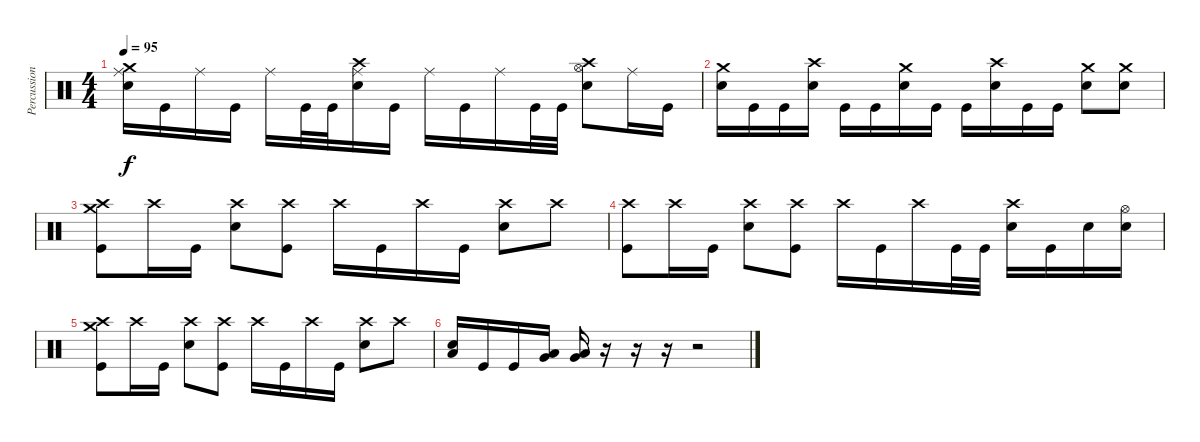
\track ("Percussion" "Percussion") {instrument percussion}
\staff {score}
\articulation defaults
\ts (4 4)
\tempo 95
\clef neutral
\ks c
("Crash medium (hit)" "Ride (middle)" "Snare (hit) 2").16{dy f} "Kick (hit)".16 "Ride (middle)".16 "Kick (hit)".16 "Ride (middle)".16 "Kick (hit)".32 "Kick (hit)".32 ("Crash high (hit)" "Ride (middle)" "Snare (hit) 2").16 "Kick (hit)".16 "Ride (middle)".16 "Kick (hit)".16 "Ride (middle)".16 "Kick (hit)".32 "Kick (hit)".32 ("Crash high (hit)" "Hi-Hat (open)" "Snare (hit) 2").8 "Ride (middle)".16 "Kick (hit)".16 |
("Crash medium (hit)" "Snare (hit) 2").16 "Kick (hit)".16 "Kick (hit)".16 ("Crash high (hit)" "Snare (hit) 2").16 "Kick (hit)".16 "Kick (hit)".16 ("Crash medium (hit)" "Snare (hit) 2").16 "Kick (hit)".16 "Kick (hit)".16 ("Crash high (hit)" "Snare (hit) 2").16 "Kick (hit)".16 "Kick (hit)".16 ("Crash medium (hit)" "Snare (hit) 2").8 ("Crash medium (hit)" "Snare (hit) 2").8 |
("Crash medium (hit)" "Crash high (hit)" "Kick (hit)").8 "Crash high (hit)".16 "Kick (hit)".16 ("Crash high (hit)" "Snare (hit) 2").8 ("Crash high (hit)" "Kick (hit)").8 "Crash high (hit)".16 "Kick (hit)".16 "Crash high (hit)".16 "Kick (hit)".16 ("Crash high (hit)" "Snare (hit) 2").8 "Crash high (hit)".8 |
("Crash high (hit)" "Kick (hit)").8 "Crash high (hit)".16 "Kick (hit)".16 ("Crash high (hit)" "Snare (hit) 2").8 ("Crash high (hit)" "Kick (hit)").8 "Crash high (hit)".16 "Kick (hit)".16 "Crash high (hit)".16 "Kick (hit)".32 "Kick (hit)".32 ("Crash high (hit)" "Snare (hit) 2").16 "Kick (hit)".16 "Snare (hit) 2".16 ("Hi-Hat (open)" "Snare (hit) 2").16 |
("Crash medium (hit)" "Crash high (hit)" "Kick (hit)").8 "Crash high (hit)".16 "Kick (hit)".16 ("Crash high (hit)" "Snare (hit) 2").8 ("Crash high (hit)" "Kick (hit)").8 "Crash high (hit)".16 "Kick (hit)".16 "Crash high (hit)".16 "Kick (hit)".16 ("Crash high (hit)" "Snare (hit) 2").8 "Crash high (hit)".8 |
("Snare (hit) 2" "Low Floor Tom (hit)").16 "Kick (hit)".16 "Kick (hit)".16 ("Very Low Tom (hit)" "Low Floor Tom (hit)").16 ("Very Low Tom (hit)" "Low Floor Tom (hit)").16 r.16 r.16 r.16 r.2
